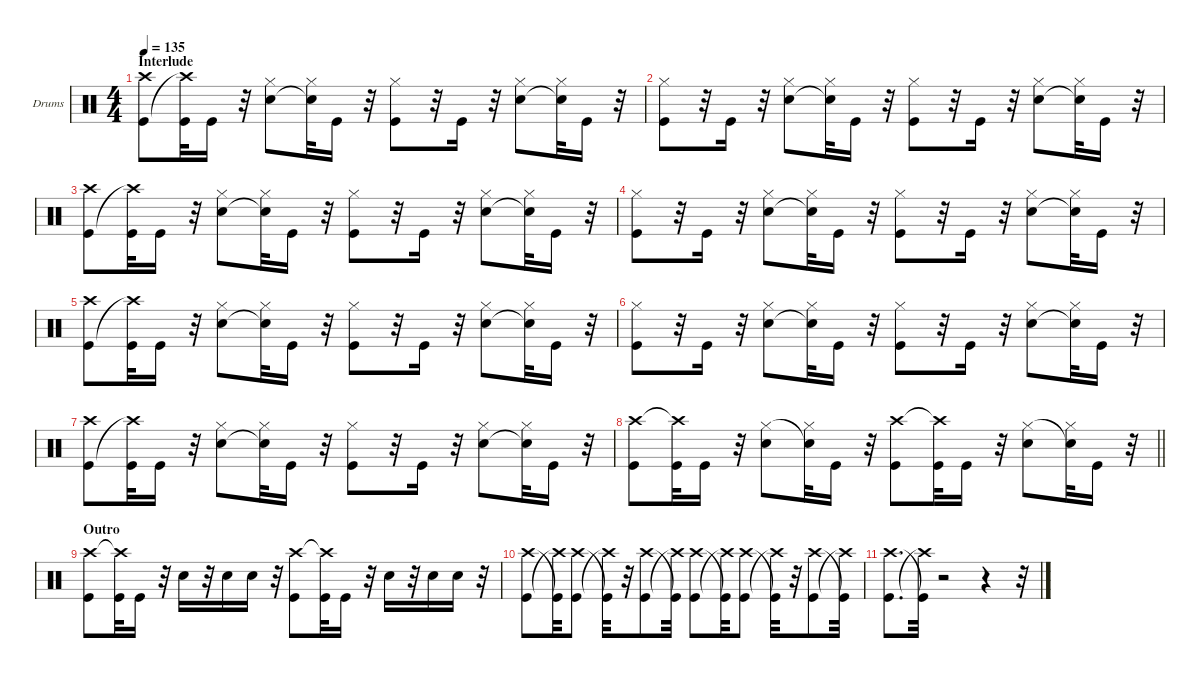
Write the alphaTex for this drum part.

\hideDynamics
\bracketExtendMode groupsimilarinstruments
\firstSystemTrackNameOrientation horizontal
\otherSystemsTrackNameOrientation horizontal
\track ("Drumkit" "Drums") {solo instrument percussion}
\staff {score}
\articulation defaults
\ts (4 4)
\section ("" "Interlude")
\tempo 135
\clef neutral
\scale
0.333333
\ks c
("Crash high (hit)" "Kick (hit)").8{dy mf} ("Kick (hit)" "Crash high (hit)"{t}).32 "Kick (hit)".16 r.32 ("Hi-Hat (closed)" "Snare (hit) 2").8 ("Hi-Hat (closed)" "Snare (hit) 2"{t}).32 "Kick (hit)".16 r.32 ("Kick (hit)" "Hi-Hat (closed)").8 r.32 "Kick (hit)".16 r.32 ("Hi-Hat (closed)" "Snare (hit) 2").8 ("Hi-Hat (closed)" "Snare (hit) 2"{t}).32 "Kick (hit)".16 r.32 |
\scale
0.333333 ("Kick (hit)" "Hi-Hat (closed)").8 r.32 "Kick (hit)".16 r.32 ("Hi-Hat (closed)" "Snare (hit) 2").8 ("Hi-Hat (closed)" "Snare (hit) 2"{t}).32 "Kick (hit)".16 r.32 ("Kick (hit)" "Hi-Hat (closed)").8 r.32 "Kick (hit)".16 r.32 ("Hi-Hat (closed)" "Snare (hit) 2").8 ("Hi-Hat (closed)" "Snare (hit) 2"{t}).32 "Kick (hit)".16 r.32 |
\scale
0.333333 ("Crash high (hit)" "Kick (hit)").8 ("Kick (hit)" "Crash high (hit)"{t}).32 "Kick (hit)".16 r.32 ("Hi-Hat (closed)" "Snare (hit) 2").8 ("Hi-Hat (closed)" "Snare (hit) 2"{t}).32 "Kick (hit)".16 r.32 ("Kick (hit)" "Hi-Hat (closed)").8 r.32 "Kick (hit)".16 r.32 ("Hi-Hat (closed)" "Snare (hit) 2").8 ("Hi-Hat (closed)" "Snare (hit) 2"{t}).32 "Kick (hit)".16 r.32 |
\scale
0.333333 ("Kick (hit)" "Hi-Hat (closed)").8 r.32 "Kick (hit)".16 r.32 ("Hi-Hat (closed)" "Snare (hit) 2").8 ("Hi-Hat (closed)" "Snare (hit) 2"{t}).32 "Kick (hit)".16 r.32 ("Kick (hit)" "Hi-Hat (closed)").8 r.32 "Kick (hit)".16 r.32 ("Hi-Hat (closed)" "Snare (hit) 2").8 ("Hi-Hat (closed)" "Snare (hit) 2"{t}).32 "Kick (hit)".16 r.32 |
\scale
0.333333 ("Crash high (hit)" "Kick (hit)").8 ("Kick (hit)" "Crash high (hit)"{t}).32 "Kick (hit)".16 r.32 ("Hi-Hat (closed)" "Snare (hit) 2").8 ("Hi-Hat (closed)" "Snare (hit) 2"{t}).32 "Kick (hit)".16 r.32 ("Kick (hit)" "Hi-Hat (closed)").8 r.32 "Kick (hit)".16 r.32 ("Hi-Hat (closed)" "Snare (hit) 2").8 ("Hi-Hat (closed)" "Snare (hit) 2"{t}).32 "Kick (hit)".16 r.32 |
\scale
0.333333 ("Kick (hit)" "Hi-Hat (closed)").8 r.32 "Kick (hit)".16 r.32 ("Hi-Hat (closed)" "Snare (hit) 2").8 ("Hi-Hat (closed)" "Snare (hit) 2"{t}).32 "Kick (hit)".16 r.32 ("Kick (hit)" "Hi-Hat (closed)").8 r.32 "Kick (hit)".16 r.32 ("Hi-Hat (closed)" "Snare (hit) 2").8 ("Hi-Hat (closed)" "Snare (hit) 2"{t}).32 "Kick (hit)".16 r.32 |
\scale
0.333333 ("Crash high (hit)" "Kick (hit)").8 ("Kick (hit)" "Crash high (hit)"{t}).32 "Kick (hit)".16 r.32 ("Hi-Hat (closed)" "Snare (hit) 2").8 ("Hi-Hat (closed)" "Snare (hit) 2"{t}).32 "Kick (hit)".16 r.32 ("Kick (hit)" "Hi-Hat (closed)").8 r.32 "Kick (hit)".16 r.32 ("Hi-Hat (closed)" "Snare (hit) 2").8 ("Hi-Hat (closed)" "Snare (hit) 2"{t}).32 "Kick (hit)".16 r.32 |
\scale
0.333333
\barLineRight lightlight
("Crash high (hit)" "Kick (hit)").8 ("Crash high (hit)"{t} "Kick (hit)").32 "Kick (hit)".16 r.32 ("Hi-Hat (closed)" "Snare (hit) 2").8 ("Snare (hit) 2"{t} "Hi-Hat (closed)").32 "Kick (hit)".16 r.32 ("Crash high (hit)" "Kick (hit)").8 ("Crash high (hit)"{t} "Kick (hit)").32 "Kick (hit)".16 r.32 ("Hi-Hat (closed)" "Snare (hit) 2").8 ("Snare (hit) 2"{t} "Hi-Hat (closed)").32 "Kick (hit)".16 r.32 |
\section ("" "Outro")
\scale
0.333333 ("Crash high (hit)" "Kick (hit)").8 ("Crash high (hit)"{t} "Kick (hit)").32 "Kick (hit)".16 r.32 "Snare (hit) 2".16 r.32 "Snare (hit) 2".16 "Snare (hit) 2".16 r.32 ("Crash high (hit)" "Kick (hit)").8 ("Crash high (hit)"{t} "Kick (hit)").32 "Kick (hit)".16 r.32 "Snare (hit) 2".16 r.32 "Snare (hit) 2".16 "Snare (hit) 2".16 r.32 |
("Kick (hit)" "Crash high (hit)").8 ("Crash high (hit)"{t} "Kick (hit)"{t}).32 ("Kick (hit)" "Crash high (hit)").8 ("Crash high (hit)"{t} "Kick (hit)"{t}).32 r.32 ("Kick (hit)" "Crash high (hit)").8 ("Crash high (hit)"{t} "Kick (hit)"{t}).32 ("Kick (hit)" "Crash high (hit)").8 ("Crash high (hit)"{t} "Kick (hit)"{t}).32 ("Kick (hit)" "Crash high (hit)").8 ("Crash high (hit)"{t} "Kick (hit)"{t}).32 r.32 ("Kick (hit)" "Crash high (hit)").8 ("Crash high (hit)"{t} "Kick (hit)"{t}).32 |
("Kick (hit)" "Crash high (hit)").8{d} ("Crash high (hit)"{t} "Kick (hit)"{t}).32 r.2 r.4 r.32
